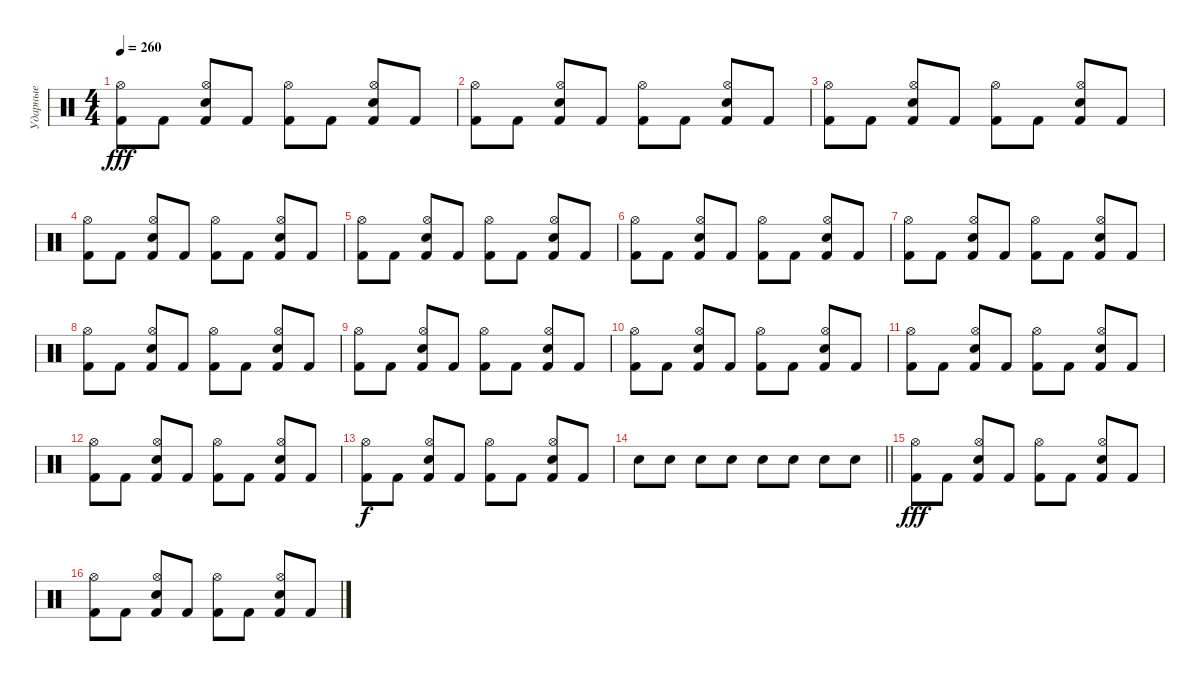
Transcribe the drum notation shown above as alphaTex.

\track ("Ударные" "Ударные") {instrument percussion}
\staff {score}
\articulation defaults
\ts (4 4)
\tempo 260
\clef neutral
\ks c
("Kick (hit) 2" "Hi-Hat (open)").8{dy fff} "Kick (hit) 2".8 ("Kick (hit) 2" "Snare (hit) 2" "Hi-Hat (open)").8 "Kick (hit) 2".8 ("Kick (hit) 2" "Hi-Hat (open)").8 "Kick (hit) 2".8 ("Kick (hit) 2" "Snare (hit) 2" "Hi-Hat (open)").8 "Kick (hit) 2".8 |
("Kick (hit) 2" "Hi-Hat (open)").8 "Kick (hit) 2".8 ("Kick (hit) 2" "Snare (hit) 2" "Hi-Hat (open)").8 "Kick (hit) 2".8 ("Kick (hit) 2" "Hi-Hat (open)").8 "Kick (hit) 2".8 ("Kick (hit) 2" "Snare (hit) 2" "Hi-Hat (open)").8 "Kick (hit) 2".8 |
("Kick (hit) 2" "Hi-Hat (open)").8 "Kick (hit) 2".8 ("Kick (hit) 2" "Snare (hit) 2" "Hi-Hat (open)").8 "Kick (hit) 2".8 ("Kick (hit) 2" "Hi-Hat (open)").8 "Kick (hit) 2".8 ("Kick (hit) 2" "Snare (hit) 2" "Hi-Hat (open)").8 "Kick (hit) 2".8 |
("Kick (hit) 2" "Hi-Hat (open)").8 "Kick (hit) 2".8 ("Kick (hit) 2" "Snare (hit) 2" "Hi-Hat (open)").8 "Kick (hit) 2".8 ("Kick (hit) 2" "Hi-Hat (open)").8 "Kick (hit) 2".8 ("Kick (hit) 2" "Snare (hit) 2" "Hi-Hat (open)").8 "Kick (hit) 2".8 |
("Kick (hit) 2" "Hi-Hat (open)").8 "Kick (hit) 2".8 ("Kick (hit) 2" "Snare (hit) 2" "Hi-Hat (open)").8 "Kick (hit) 2".8 ("Kick (hit) 2" "Hi-Hat (open)").8 "Kick (hit) 2".8 ("Kick (hit) 2" "Snare (hit) 2" "Hi-Hat (open)").8 "Kick (hit) 2".8 |
("Kick (hit) 2" "Hi-Hat (open)").8 "Kick (hit) 2".8 ("Kick (hit) 2" "Snare (hit) 2" "Hi-Hat (open)").8 "Kick (hit) 2".8 ("Kick (hit) 2" "Hi-Hat (open)").8 "Kick (hit) 2".8 ("Kick (hit) 2" "Snare (hit) 2" "Hi-Hat (open)").8 "Kick (hit) 2".8 |
("Kick (hit) 2" "Hi-Hat (open)").8 "Kick (hit) 2".8 ("Kick (hit) 2" "Snare (hit) 2" "Hi-Hat (open)").8 "Kick (hit) 2".8 ("Kick (hit) 2" "Hi-Hat (open)").8 "Kick (hit) 2".8 ("Kick (hit) 2" "Snare (hit) 2" "Hi-Hat (open)").8 "Kick (hit) 2".8 |
("Kick (hit) 2" "Hi-Hat (open)").8 "Kick (hit) 2".8 ("Kick (hit) 2" "Snare (hit) 2" "Hi-Hat (open)").8 "Kick (hit) 2".8 ("Kick (hit) 2" "Hi-Hat (open)").8 "Kick (hit) 2".8 ("Kick (hit) 2" "Snare (hit) 2" "Hi-Hat (open)").8 "Kick (hit) 2".8 |
("Kick (hit) 2" "Hi-Hat (open)").8 "Kick (hit) 2".8 ("Kick (hit) 2" "Snare (hit) 2" "Hi-Hat (open)").8 "Kick (hit) 2".8 ("Kick (hit) 2" "Hi-Hat (open)").8 "Kick (hit) 2".8 ("Kick (hit) 2" "Snare (hit) 2" "Hi-Hat (open)").8 "Kick (hit) 2".8 |
("Kick (hit) 2" "Hi-Hat (open)").8 "Kick (hit) 2".8 ("Kick (hit) 2" "Snare (hit) 2" "Hi-Hat (open)").8 "Kick (hit) 2".8 ("Kick (hit) 2" "Hi-Hat (open)").8 "Kick (hit) 2".8 ("Kick (hit) 2" "Snare (hit) 2" "Hi-Hat (open)").8 "Kick (hit) 2".8 |
("Kick (hit) 2" "Hi-Hat (open)").8 "Kick (hit) 2".8 ("Kick (hit) 2" "Snare (hit) 2" "Hi-Hat (open)").8 "Kick (hit) 2".8 ("Kick (hit) 2" "Hi-Hat (open)").8 "Kick (hit) 2".8 ("Kick (hit) 2" "Snare (hit) 2" "Hi-Hat (open)").8 "Kick (hit) 2".8 |
("Kick (hit) 2" "Hi-Hat (open)").8 "Kick (hit) 2".8 ("Kick (hit) 2" "Snare (hit) 2" "Hi-Hat (open)").8 "Kick (hit) 2".8 ("Kick (hit) 2" "Hi-Hat (open)").8 "Kick (hit) 2".8 ("Kick (hit) 2" "Snare (hit) 2" "Hi-Hat (open)").8 "Kick (hit) 2".8 |
("Kick (hit) 2" "Hi-Hat (open)").8{dy f} "Kick (hit) 2".8 ("Kick (hit) 2" "Snare (hit) 2" "Hi-Hat (open)").8 "Kick (hit) 2".8 ("Kick (hit) 2" "Hi-Hat (open)").8 "Kick (hit) 2".8 ("Kick (hit) 2" "Snare (hit) 2" "Hi-Hat (open)").8 "Kick (hit) 2".8 |
\barLineRight lightlight "Snare (hit) 2".8 "Snare (hit) 2".8 "Snare (hit) 2".8 "Snare (hit) 2".8 "Snare (hit) 2".8 "Snare (hit) 2".8 "Snare (hit) 2".8 "Snare (hit) 2".8
|
("Kick (hit) 2" "Hi-Hat (open)").8{dy fff} "Kick (hit) 2".8 ("Kick (hit) 2" "Snare (hit) 2" "Hi-Hat (open)").8 "Kick (hit) 2".8 ("Kick (hit) 2" "Hi-Hat (open)").8 "Kick (hit) 2".8 ("Kick (hit) 2" "Snare (hit) 2" "Hi-Hat (open)").8 "Kick (hit) 2".8 |
("Kick (hit) 2" "Hi-Hat (open)").8 "Kick (hit) 2".8 ("Kick (hit) 2" "Snare (hit) 2" "Hi-Hat (open)").8 "Kick (hit) 2".8 ("Kick (hit) 2" "Hi-Hat (open)").8 "Kick (hit) 2".8 ("Kick (hit) 2" "Snare (hit) 2" "Hi-Hat (open)").8 "Kick (hit) 2".8
